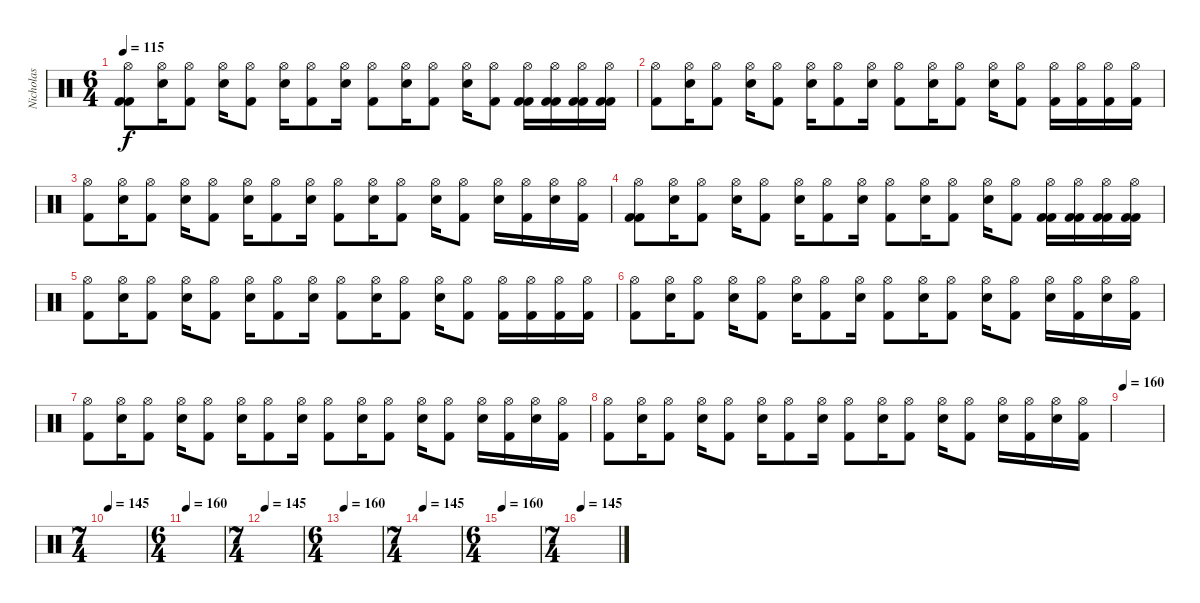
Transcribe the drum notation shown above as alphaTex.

\track ("Nicholas" "Nicholas") {instrument percussion}
\staff {score}
\articulation defaults
\ts (6 4)
\tempo 110
\tempo 115
\clef neutral
\ks c
("Hi-Hat (open)" "Kick (hit) 2" "Kick (hit) 2").8{dy f} ("Hi-Hat (open)" "Snare (hit) 2").16 ("Hi-Hat (open)" "Kick (hit) 2").8 ("Hi-Hat (open)" "Snare (hit) 2").16 ("Hi-Hat (open)" "Kick (hit) 2").8 ("Hi-Hat (open)" "Snare (hit) 2").16 ("Hi-Hat (open)" "Kick (hit) 2").8 ("Hi-Hat (open)" "Snare (hit) 2").16 ("Hi-Hat (open)" "Kick (hit) 2").8 ("Hi-Hat (open)" "Snare (hit) 2").16 ("Hi-Hat (open)" "Kick (hit) 2").8 ("Hi-Hat (open)" "Snare (hit) 2").16 ("Hi-Hat (open)" "Kick (hit) 2").8 ("Hi-Hat (open)" "Kick (hit) 2" "Kick (hit) 2").16 ("Hi-Hat (open)" "Kick (hit) 2" "Kick (hit) 2").16 ("Hi-Hat (open)" "Kick (hit) 2" "Kick (hit) 2").16 ("Hi-Hat (open)" "Kick (hit) 2" "Kick (hit) 2").16 |
("Hi-Hat (open)" "Kick (hit) 2").8 ("Hi-Hat (open)" "Snare (hit) 2").16 ("Hi-Hat (open)" "Kick (hit) 2").8 ("Hi-Hat (open)" "Snare (hit) 2").16 ("Hi-Hat (open)" "Kick (hit) 2").8 ("Hi-Hat (open)" "Snare (hit) 2").16 ("Hi-Hat (open)" "Kick (hit) 2").8 ("Hi-Hat (open)" "Snare (hit) 2").16 ("Hi-Hat (open)" "Kick (hit) 2").8 ("Hi-Hat (open)" "Snare (hit) 2").16 ("Hi-Hat (open)" "Kick (hit) 2").8 ("Hi-Hat (open)" "Snare (hit) 2").16 ("Hi-Hat (open)" "Kick (hit) 2").8 ("Hi-Hat (open)" "Kick (hit) 2").16 ("Hi-Hat (open)" "Kick (hit) 2").16 ("Hi-Hat (open)" "Kick (hit) 2").16 ("Hi-Hat (open)" "Kick (hit) 2").16 |
("Hi-Hat (open)" "Kick (hit) 2").8 ("Hi-Hat (open)" "Snare (hit) 2").16 ("Hi-Hat (open)" "Kick (hit) 2").8 ("Hi-Hat (open)" "Snare (hit) 2").16 ("Hi-Hat (open)" "Kick (hit) 2").8 ("Hi-Hat (open)" "Snare (hit) 2").16 ("Hi-Hat (open)" "Kick (hit) 2").8 ("Hi-Hat (open)" "Snare (hit) 2").16 ("Hi-Hat (open)" "Kick (hit) 2").8 ("Hi-Hat (open)" "Snare (hit) 2").16 ("Hi-Hat (open)" "Kick (hit) 2").8 ("Hi-Hat (open)" "Snare (hit) 2").16 ("Hi-Hat (open)" "Kick (hit) 2").8 ("Hi-Hat (open)" "Snare (hit) 2").16 ("Hi-Hat (open)" "Kick (hit) 2").16 ("Hi-Hat (open)" "Snare (hit) 2").16 ("Hi-Hat (open)" "Kick (hit) 2").16 |
("Hi-Hat (open)" "Kick (hit) 2" "Kick (hit) 2").8 ("Hi-Hat (open)" "Snare (hit) 2").16 ("Hi-Hat (open)" "Kick (hit) 2").8 ("Hi-Hat (open)" "Snare (hit) 2").16 ("Hi-Hat (open)" "Kick (hit) 2").8 ("Hi-Hat (open)" "Snare (hit) 2").16 ("Hi-Hat (open)" "Kick (hit) 2").8 ("Hi-Hat (open)" "Snare (hit) 2").16 ("Hi-Hat (open)" "Kick (hit) 2").8 ("Hi-Hat (open)" "Snare (hit) 2").16 ("Hi-Hat (open)" "Kick (hit) 2").8 ("Hi-Hat (open)" "Snare (hit) 2").16 ("Hi-Hat (open)" "Kick (hit) 2").8 ("Hi-Hat (open)" "Kick (hit) 2" "Kick (hit) 2").16 ("Hi-Hat (open)" "Kick (hit) 2" "Kick (hit) 2").16 ("Hi-Hat (open)" "Kick (hit) 2" "Kick (hit) 2").16 ("Hi-Hat (open)" "Kick (hit) 2" "Kick (hit) 2").16 |
("Hi-Hat (open)" "Kick (hit) 2").8 ("Hi-Hat (open)" "Snare (hit) 2").16 ("Hi-Hat (open)" "Kick (hit) 2").8 ("Hi-Hat (open)" "Snare (hit) 2").16 ("Hi-Hat (open)" "Kick (hit) 2").8 ("Hi-Hat (open)" "Snare (hit) 2").16 ("Hi-Hat (open)" "Kick (hit) 2").8 ("Hi-Hat (open)" "Snare (hit) 2").16 ("Hi-Hat (open)" "Kick (hit) 2").8 ("Hi-Hat (open)" "Snare (hit) 2").16 ("Hi-Hat (open)" "Kick (hit) 2").8 ("Hi-Hat (open)" "Snare (hit) 2").16 ("Hi-Hat (open)" "Kick (hit) 2").8 ("Hi-Hat (open)" "Kick (hit) 2").16 ("Hi-Hat (open)" "Kick (hit) 2").16 ("Hi-Hat (open)" "Kick (hit) 2").16 ("Hi-Hat (open)" "Kick (hit) 2").16 |
("Hi-Hat (open)" "Kick (hit) 2").8 ("Hi-Hat (open)" "Snare (hit) 2").16 ("Hi-Hat (open)" "Kick (hit) 2").8 ("Hi-Hat (open)" "Snare (hit) 2").16 ("Hi-Hat (open)" "Kick (hit) 2").8 ("Hi-Hat (open)" "Snare (hit) 2").16 ("Hi-Hat (open)" "Kick (hit) 2").8 ("Hi-Hat (open)" "Snare (hit) 2").16 ("Hi-Hat (open)" "Kick (hit) 2").8 ("Hi-Hat (open)" "Snare (hit) 2").16 ("Hi-Hat (open)" "Kick (hit) 2").8 ("Hi-Hat (open)" "Snare (hit) 2").16 ("Hi-Hat (open)" "Kick (hit) 2").8 ("Hi-Hat (open)" "Snare (hit) 2").16 ("Hi-Hat (open)" "Kick (hit) 2").16 ("Hi-Hat (open)" "Snare (hit) 2").16 ("Hi-Hat (open)" "Kick (hit) 2").16 |
("Hi-Hat (open)" "Kick (hit) 2").8 ("Hi-Hat (open)" "Snare (hit) 2").16 ("Hi-Hat (open)" "Kick (hit) 2").8 ("Hi-Hat (open)" "Snare (hit) 2").16 ("Hi-Hat (open)" "Kick (hit) 2").8 ("Hi-Hat (open)" "Snare (hit) 2").16 ("Hi-Hat (open)" "Kick (hit) 2").8 ("Hi-Hat (open)" "Snare (hit) 2").16 ("Hi-Hat (open)" "Kick (hit) 2").8 ("Hi-Hat (open)" "Snare (hit) 2").16 ("Hi-Hat (open)" "Kick (hit) 2").8 ("Hi-Hat (open)" "Snare (hit) 2").16 ("Hi-Hat (open)" "Kick (hit) 2").8 ("Hi-Hat (open)" "Snare (hit) 2").16 ("Hi-Hat (open)" "Kick (hit) 2").16 ("Hi-Hat (open)" "Snare (hit) 2").16 ("Hi-Hat (open)" "Kick (hit) 2").16 |
("Hi-Hat (open)" "Kick (hit) 2").8 ("Hi-Hat (open)" "Snare (hit) 2").16 ("Hi-Hat (open)" "Kick (hit) 2").8 ("Hi-Hat (open)" "Snare (hit) 2").16 ("Hi-Hat (open)" "Kick (hit) 2").8 ("Hi-Hat (open)" "Snare (hit) 2").16 ("Hi-Hat (open)" "Kick (hit) 2").8 ("Hi-Hat (open)" "Snare (hit) 2").16 ("Hi-Hat (open)" "Kick (hit) 2").8 ("Hi-Hat (open)" "Snare (hit) 2").16 ("Hi-Hat (open)" "Kick (hit) 2").8 ("Hi-Hat (open)" "Snare (hit) 2").16 ("Hi-Hat (open)" "Kick (hit) 2").8 ("Hi-Hat (open)" "Snare (hit) 2").16 ("Hi-Hat (open)" "Kick (hit) 2").16 ("Hi-Hat (open)" "Snare (hit) 2").16 ("Hi-Hat (open)" "Kick (hit) 2").16 |
\tempo 160
|
\ts (7 4)
\tempo 145
|
\ts (6 4)
\tempo 160
|
\ts (7 4)
\tempo 145
|
\ts (6 4)
\tempo 160
|
\ts (7 4)
\tempo 145
|
\ts (6 4)
\tempo 160
|
\ts (7 4)
\tempo 145
